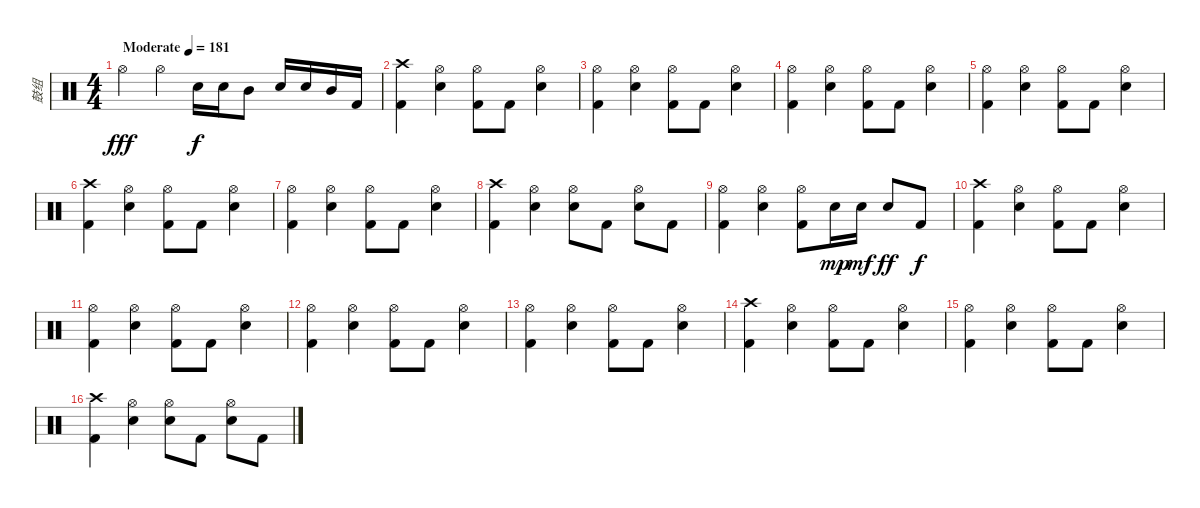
\track ("鼓组" "鼓组") {instrument percussion}
\staff {score}
\articulation defaults
\ts (4 4)
\tempo (181 "Moderate")
\clef neutral
\ks c "Hi-Hat (open)".4{dy fff} "Hi-Hat (open)".4 "Snare (hit) 2".16{dy f} "Snare (hit) 2".16 "Mid Tom (hit)".8 "Snare (hit) 2".16 "Snare (hit) 2".16 "Mid Tom (hit)".16 "Kick (hit) 2".16
|
("Crash high (hit)" "Kick (hit) 2").4 ("Hi-Hat (open)" "Snare (hit) 2").4 ("Hi-Hat (open)" "Kick (hit) 2").8 "Kick (hit) 2".8 ("Hi-Hat (open)" "Snare (hit) 2").4 |
("Hi-Hat (open)" "Kick (hit) 2").4 ("Hi-Hat (open)" "Snare (hit) 2").4 ("Hi-Hat (open)" "Kick (hit) 2").8 "Kick (hit) 2".8 ("Hi-Hat (open)" "Snare (hit) 2").4 |
("Hi-Hat (open)" "Kick (hit) 2").4 ("Hi-Hat (open)" "Snare (hit) 2").4 ("Hi-Hat (open)" "Kick (hit) 2").8 "Kick (hit) 2".8 ("Hi-Hat (open)" "Snare (hit) 2").4 |
("Hi-Hat (open)" "Kick (hit) 2").4 ("Hi-Hat (open)" "Snare (hit) 2").4 ("Hi-Hat (open)" "Kick (hit) 2").8 "Kick (hit) 2".8 ("Hi-Hat (open)" "Snare (hit) 2").4 |
("Crash high (hit)" "Kick (hit) 2").4 ("Hi-Hat (open)" "Snare (hit) 2").4 ("Hi-Hat (open)" "Kick (hit) 2").8 "Kick (hit) 2".8 ("Hi-Hat (open)" "Snare (hit) 2").4 |
("Hi-Hat (open)" "Kick (hit) 2").4 ("Hi-Hat (open)" "Snare (hit) 2").4 ("Hi-Hat (open)" "Kick (hit) 2").8 "Kick (hit) 2".8 ("Hi-Hat (open)" "Snare (hit) 2").4 |
("Crash high (hit)" "Kick (hit) 2").4 ("Hi-Hat (open)" "Snare (hit) 2").4 ("Hi-Hat (open)" "Snare (hit) 2").8 "Kick (hit) 2".8 ("Hi-Hat (open)" "Snare (hit) 2").8 "Kick (hit) 2".8 |
("Hi-Hat (open)" "Kick (hit) 2").4 ("Hi-Hat (open)" "Snare (hit) 2").4 ("Hi-Hat (open)" "Kick (hit) 2").8 "Snare (hit) 2".16{dy mp} "Snare (hit) 2".16{dy mf} "Snare (hit) 2".8{dy ff} "Kick (hit) 2".8{dy f} |
("Crash high (hit)" "Kick (hit) 2").4 ("Hi-Hat (open)" "Snare (hit) 2").4 ("Hi-Hat (open)" "Kick (hit) 2").8 "Kick (hit) 2".8 ("Hi-Hat (open)" "Snare (hit) 2").4 |
("Hi-Hat (open)" "Kick (hit) 2").4 ("Hi-Hat (open)" "Snare (hit) 2").4 ("Hi-Hat (open)" "Kick (hit) 2").8 "Kick (hit) 2".8 ("Hi-Hat (open)" "Snare (hit) 2").4 |
("Hi-Hat (open)" "Kick (hit) 2").4 ("Hi-Hat (open)" "Snare (hit) 2").4 ("Hi-Hat (open)" "Kick (hit) 2").8 "Kick (hit) 2".8 ("Hi-Hat (open)" "Snare (hit) 2").4 |
("Hi-Hat (open)" "Kick (hit) 2").4 ("Hi-Hat (open)" "Snare (hit) 2").4 ("Hi-Hat (open)" "Kick (hit) 2").8 "Kick (hit) 2".8 ("Hi-Hat (open)" "Snare (hit) 2").4 |
("Crash high (hit)" "Kick (hit) 2").4 ("Hi-Hat (open)" "Snare (hit) 2").4 ("Hi-Hat (open)" "Kick (hit) 2").8 "Kick (hit) 2".8 ("Hi-Hat (open)" "Snare (hit) 2").4 |
("Hi-Hat (open)" "Kick (hit) 2").4 ("Hi-Hat (open)" "Snare (hit) 2").4 ("Hi-Hat (open)" "Kick (hit) 2").8 "Kick (hit) 2".8 ("Hi-Hat (open)" "Snare (hit) 2").4 |
("Crash high (hit)" "Kick (hit) 2").4 ("Hi-Hat (open)" "Snare (hit) 2").4 ("Hi-Hat (open)" "Snare (hit) 2").8 "Kick (hit) 2".8 ("Hi-Hat (open)" "Snare (hit) 2").8 "Kick (hit) 2".8
